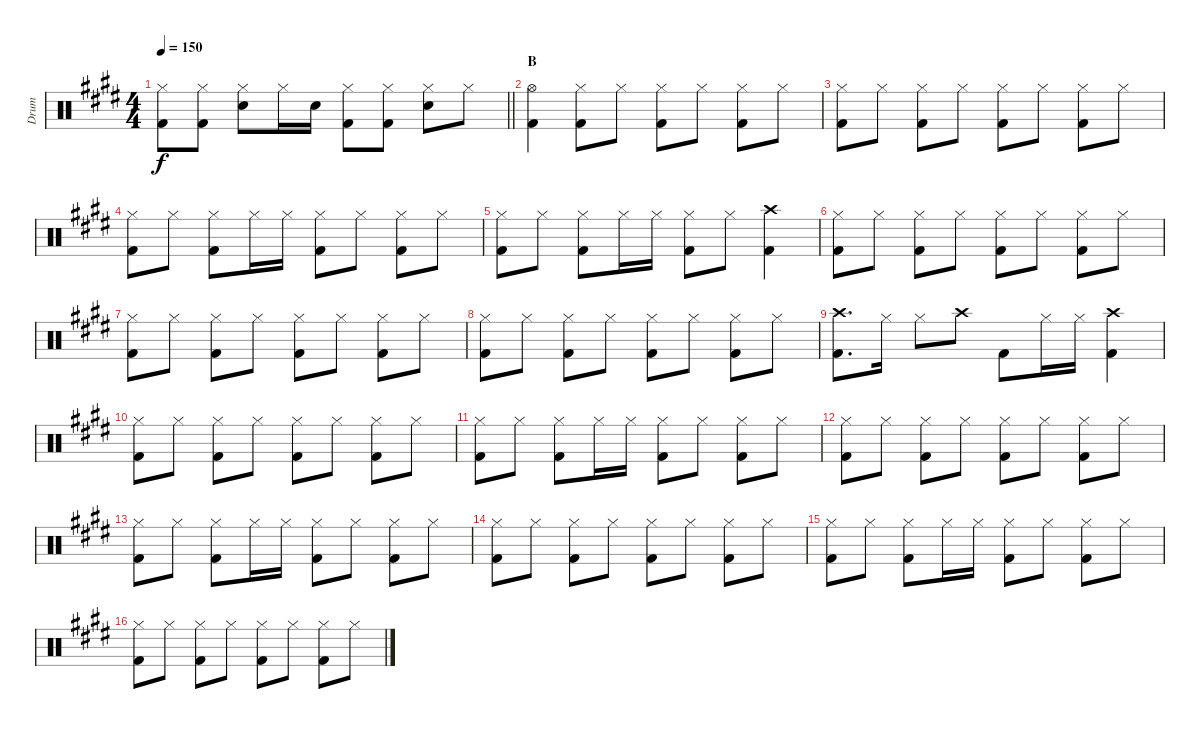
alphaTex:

\track ("Drum" "Drum") {instrument percussion}
\staff {score}
\articulation defaults
\ts (4 4)
\tempo 150
\clef neutral
\barLineRight lightlight
\ks c#minor
("Hi-Hat (closed)" "Kick (hit) 2").8{dy f} ("Hi-Hat (closed)" "Kick (hit) 2").8 ("Hi-Hat (closed)" "Snare (hit) 2").8 "Hi-Hat (closed)".16 "Snare (hit) 2".16 ("Hi-Hat (closed)" "Kick (hit) 2").8 ("Hi-Hat (closed)" "Kick (hit) 2").8 ("Hi-Hat (closed)" "Snare (hit) 2").8 "Hi-Hat (closed)".8 |
\section ("" "B")
("Hi-Hat (open)" "Kick (hit) 2").4 ("Hi-Hat (closed)" "Kick (hit) 2").8 "Hi-Hat (closed)".8 ("Hi-Hat (closed)" "Kick (hit) 2").8 "Hi-Hat (closed)".8 ("Hi-Hat (closed)" "Kick (hit) 2").8 "Hi-Hat (closed)".8 |
("Hi-Hat (closed)" "Kick (hit) 2").8 "Hi-Hat (closed)".8 ("Hi-Hat (closed)" "Kick (hit) 2").8 "Hi-Hat (closed)".8 ("Hi-Hat (closed)" "Kick (hit) 2").8 "Hi-Hat (closed)".8 ("Hi-Hat (closed)" "Kick (hit) 2").8 "Hi-Hat (closed)".8 |
("Hi-Hat (closed)" "Kick (hit) 2").8 "Hi-Hat (closed)".8 ("Hi-Hat (closed)" "Kick (hit) 2").8 "Hi-Hat (closed)".16 "Hi-Hat (closed)".16 ("Hi-Hat (closed)" "Kick (hit) 2").8 "Hi-Hat (closed)".8 ("Hi-Hat (closed)" "Kick (hit) 2").8 "Hi-Hat (closed)".8 |
("Hi-Hat (closed)" "Kick (hit) 2").8 "Hi-Hat (closed)".8 ("Hi-Hat (closed)" "Kick (hit) 2").8 "Hi-Hat (closed)".16 "Hi-Hat (closed)".16 ("Hi-Hat (closed)" "Kick (hit) 2").8 "Hi-Hat (closed)".8 ("Crash high (hit)" "Kick (hit) 2").4 |
("Hi-Hat (closed)" "Kick (hit) 2").8 "Hi-Hat (closed)".8 ("Hi-Hat (closed)" "Kick (hit) 2").8 "Hi-Hat (closed)".8 ("Hi-Hat (closed)" "Kick (hit) 2").8 "Hi-Hat (closed)".8 ("Hi-Hat (closed)" "Kick (hit) 2").8 "Hi-Hat (closed)".8 |
("Hi-Hat (closed)" "Kick (hit) 2").8 "Hi-Hat (closed)".8 ("Hi-Hat (closed)" "Kick (hit) 2").8 "Hi-Hat (closed)".8 ("Hi-Hat (closed)" "Kick (hit) 2").8 "Hi-Hat (closed)".8 ("Hi-Hat (closed)" "Kick (hit) 2").8 "Hi-Hat (closed)".8 |
("Hi-Hat (closed)" "Kick (hit) 2").8 "Hi-Hat (closed)".8 ("Hi-Hat (closed)" "Kick (hit) 2").8 "Hi-Hat (closed)".8 ("Hi-Hat (closed)" "Kick (hit) 2").8 "Hi-Hat (closed)".8 ("Hi-Hat (closed)" "Kick (hit) 2").8 "Hi-Hat (closed)".8 |
("Crash high (hit)" "Kick (hit) 2").8{d} "Hi-Hat (closed)".16 "Hi-Hat (closed)".8 "Crash high (hit)".8 "Kick (hit) 2".8 "Hi-Hat (closed)".16 "Hi-Hat (closed)".16 ("Crash high (hit)" "Kick (hit) 2").4 |
("Hi-Hat (closed)" "Kick (hit) 2").8 "Hi-Hat (closed)".8 ("Hi-Hat (closed)" "Kick (hit) 2").8 "Hi-Hat (closed)".8 ("Hi-Hat (closed)" "Kick (hit) 2").8 "Hi-Hat (closed)".8 ("Hi-Hat (closed)" "Kick (hit) 2").8 "Hi-Hat (closed)".8 |
("Hi-Hat (closed)" "Kick (hit) 2").8 "Hi-Hat (closed)".8 ("Hi-Hat (closed)" "Kick (hit) 2").8 "Hi-Hat (closed)".16 "Hi-Hat (closed)".16 ("Hi-Hat (closed)" "Kick (hit) 2").8 "Hi-Hat (closed)".8 ("Hi-Hat (closed)" "Kick (hit) 2").8 "Hi-Hat (closed)".8 |
("Hi-Hat (closed)" "Kick (hit) 2").8 "Hi-Hat (closed)".8 ("Hi-Hat (closed)" "Kick (hit) 2").8 "Hi-Hat (closed)".8 ("Hi-Hat (closed)" "Kick (hit) 2").8 "Hi-Hat (closed)".8 ("Hi-Hat (closed)" "Kick (hit) 2").8 "Hi-Hat (closed)".8 |
("Hi-Hat (closed)" "Kick (hit) 2").8 "Hi-Hat (closed)".8 ("Hi-Hat (closed)" "Kick (hit) 2").8 "Hi-Hat (closed)".16 "Hi-Hat (closed)".16 ("Hi-Hat (closed)" "Kick (hit) 2").8 "Hi-Hat (closed)".8 ("Hi-Hat (closed)" "Kick (hit) 2").8 "Hi-Hat (closed)".8 |
("Hi-Hat (closed)" "Kick (hit) 2").8 "Hi-Hat (closed)".8 ("Hi-Hat (closed)" "Kick (hit) 2").8 "Hi-Hat (closed)".8 ("Hi-Hat (closed)" "Kick (hit) 2").8 "Hi-Hat (closed)".8 ("Hi-Hat (closed)" "Kick (hit) 2").8 "Hi-Hat (closed)".8 |
("Hi-Hat (closed)" "Kick (hit) 2").8 "Hi-Hat (closed)".8 ("Hi-Hat (closed)" "Kick (hit) 2").8 "Hi-Hat (closed)".16 "Hi-Hat (closed)".16 ("Hi-Hat (closed)" "Kick (hit) 2").8 "Hi-Hat (closed)".8 ("Hi-Hat (closed)" "Kick (hit) 2").8 "Hi-Hat (closed)".8 |
("Hi-Hat (closed)" "Kick (hit) 2").8 "Hi-Hat (closed)".8 ("Hi-Hat (closed)" "Kick (hit) 2").8 "Hi-Hat (closed)".8 ("Hi-Hat (closed)" "Kick (hit) 2").8 "Hi-Hat (closed)".8 ("Hi-Hat (closed)" "Kick (hit) 2").8 "Hi-Hat (closed)".8
